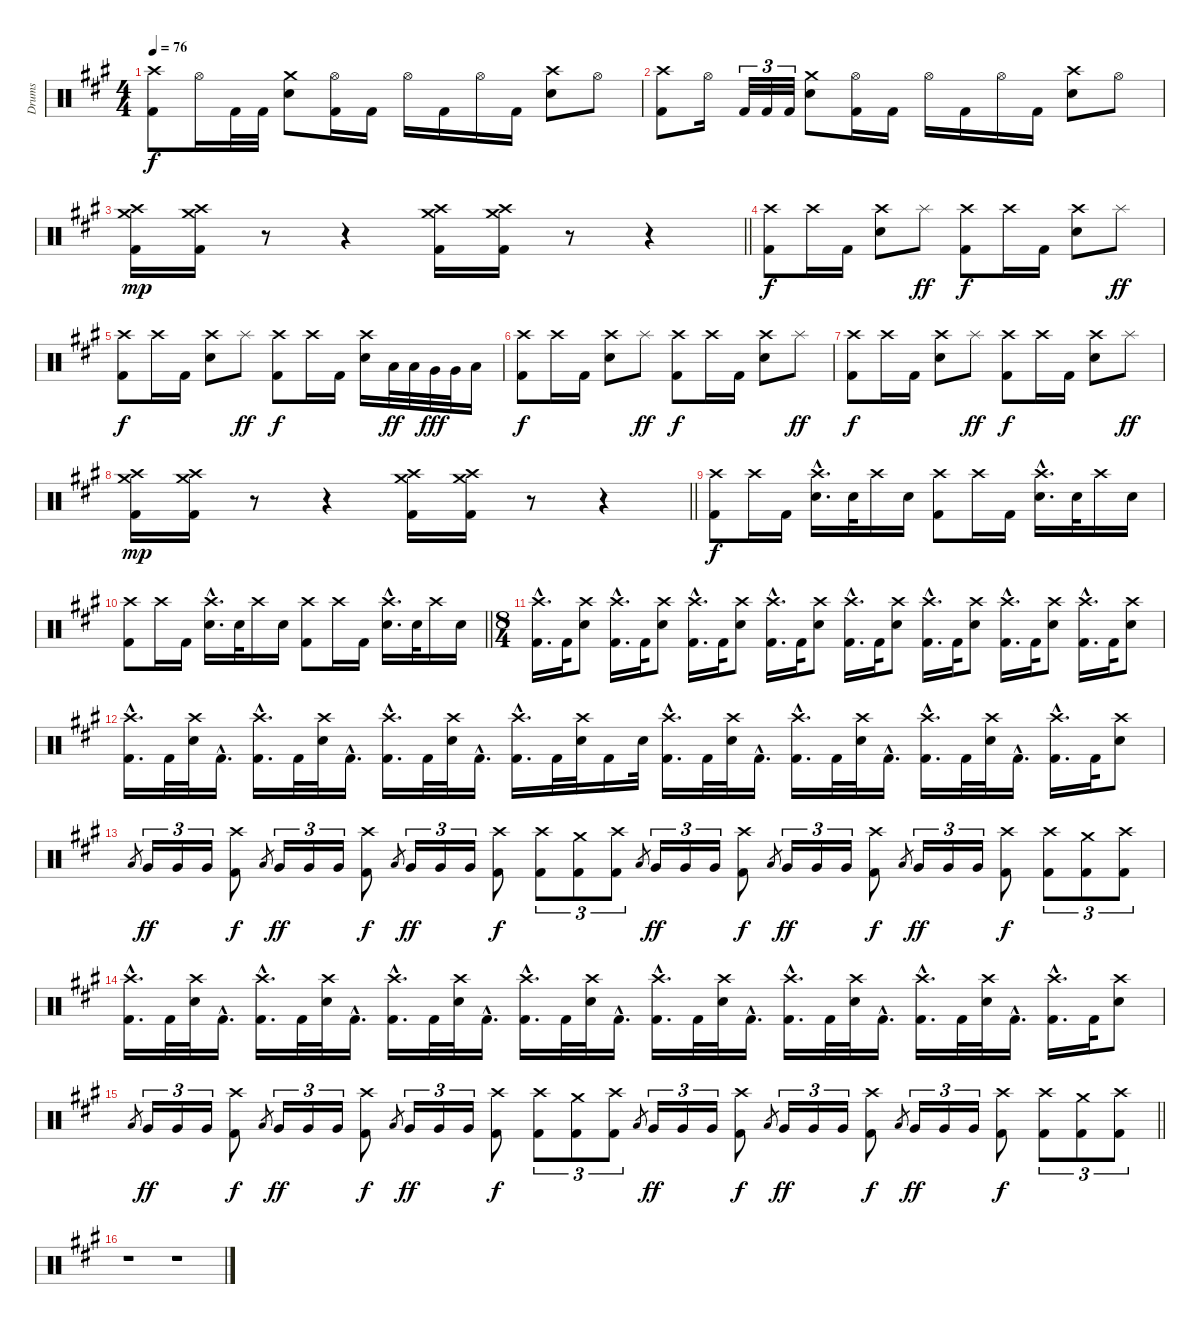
\track ("Drums" "Drums") {instrument percussion}
\staff {score}
\articulation defaults
\ts (4 4)
\tempo 76
\clef neutral
\ks f#minor
("Crash high (hit)" "Kick (hit) 2").8{dy f} "Hi-Hat (open)".16 "Kick (hit) 2".32 "Kick (hit) 2".32 ("Crash medium (hit)" "Snare (hit) 2").8 ("Hi-Hat (open)" "Kick (hit) 2").16 "Kick (hit) 2".16 "Hi-Hat (open)".16 "Kick (hit) 2".16 "Hi-Hat (open)".16 "Kick (hit) 2".16 ("Crash high (hit)" "Snare (hit) 2").8 "Hi-Hat (open)".8 |
("Crash high (hit)" "Kick (hit) 2").8 "Hi-Hat (open)".16 "Kick (hit) 2".32{tu (3 2)} "Kick (hit) 2".32{tu (3 2)} "Kick (hit) 2".32{tu (3 2)} ("Crash medium (hit)" "Snare (hit) 2").8 ("Hi-Hat (open)" "Kick (hit) 2").16 "Kick (hit) 2".16 "Hi-Hat (open)".16 "Kick (hit) 2".16 "Hi-Hat (open)".16 "Kick (hit) 2".16 ("Crash high (hit)" "Snare (hit) 2").8 "Hi-Hat (open)".8 |
\barLineRight lightlight
("Crash high (hit)" "Crash medium (hit)" "Kick (hit) 2").16{dy mp} ("Crash high (hit)" "Crash medium (hit)" "Kick (hit) 2").16 r.8 r.4 ("Crash high (hit)" "Crash medium (hit)" "Kick (hit) 2").16 ("Crash high (hit)" "Crash medium (hit)" "Kick (hit) 2").16 r.8 r.4 |
("Crash high (hit)" "Kick (hit) 2").8{dy f} "Crash high (hit)".16 "Kick (hit) 2".16 ("Crash high (hit)" "Snare (hit) 2").8 "Splash (hit)".8{dy ff} ("Crash high (hit)" "Kick (hit) 2").8{dy f} "Crash high (hit)".16 "Kick (hit) 2".16 ("Crash high (hit)" "Snare (hit) 2").8 "Splash (hit)".8{dy ff} |
("Crash high (hit)" "Kick (hit) 2").8{dy f} "Crash high (hit)".16 "Kick (hit) 2".16 ("Crash high (hit)" "Snare (hit) 2").8 "Splash (hit)".8{dy ff} ("Crash high (hit)" "Kick (hit) 2").8{dy f} "Crash high (hit)".16 "Kick (hit) 2".16 ("Crash high (hit)" "Snare (hit) 2").16 "Low Tom (hit)".32{dy ff} "Low Tom (hit)".32 "Very Low Tom (hit)".32{dy fff} "Very Low Tom (hit)".32 "Low Floor Tom (hit)".16 |
("Crash high (hit)" "Kick (hit) 2").8{dy f} "Crash high (hit)".16 "Kick (hit) 2".16 ("Crash high (hit)" "Snare (hit) 2").8 "Splash (hit)".8{dy ff} ("Crash high (hit)" "Kick (hit) 2").8{dy f} "Crash high (hit)".16 "Kick (hit) 2".16 ("Crash high (hit)" "Snare (hit) 2").8 "Splash (hit)".8{dy ff} |
("Crash high (hit)" "Kick (hit) 2").8{dy f} "Crash high (hit)".16 "Kick (hit) 2".16 ("Crash high (hit)" "Snare (hit) 2").8 "Splash (hit)".8{dy ff} ("Crash high (hit)" "Kick (hit) 2").8{dy f} "Crash high (hit)".16 "Kick (hit) 2".16 ("Crash high (hit)" "Snare (hit) 2").8 "Splash (hit)".8{dy ff} |
\barLineRight lightlight
("Crash high (hit)" "Crash medium (hit)" "Kick (hit) 2").16{dy mp} ("Crash high (hit)" "Crash medium (hit)" "Kick (hit) 2").16 r.8 r.4 ("Crash high (hit)" "Crash medium (hit)" "Kick (hit) 2").16 ("Crash high (hit)" "Crash medium (hit)" "Kick (hit) 2").16 r.8 r.4 |
("Crash high (hit)" "Kick (hit) 2").8{dy f} "Crash high (hit)".16 "Kick (hit) 2".16 ("Crash high (hit)"{hac} "Snare (hit) 2"{hac}).16{d} "Snare (hit) 2".32 "Crash high (hit)".16 "Snare (hit) 2".16 ("Crash high (hit)" "Kick (hit) 2").8 "Crash high (hit)".16 "Kick (hit) 2".16 ("Crash high (hit)"{hac} "Snare (hit) 2"{hac}).16{d} "Snare (hit) 2".32 "Crash high (hit)".16 "Snare (hit) 2".16 |
\barLineRight lightlight
("Crash high (hit)" "Kick (hit) 2").8 "Crash high (hit)".16 "Kick (hit) 2".16 ("Crash high (hit)"{hac} "Snare (hit) 2"{hac}).16{d} "Snare (hit) 2".32 "Crash high (hit)".16 "Snare (hit) 2".16 ("Crash high (hit)" "Kick (hit) 2").8 "Crash high (hit)".16 "Kick (hit) 2".16 ("Crash high (hit)"{hac} "Snare (hit) 2"{hac}).16{d} "Snare (hit) 2".32 "Crash high (hit)".16 "Snare (hit) 2".16 |
\ts (8 4)
("Crash high (hit)"{hac} "Kick (hit) 2"{hac}).16{d} "Kick (hit) 2".32 ("Crash high (hit)" "Snare (hit) 2").8 ("Crash high (hit)"{hac} "Kick (hit) 2"{hac}).16{d} "Kick (hit) 2".32 ("Crash high (hit)" "Snare (hit) 2").8 ("Crash high (hit)"{hac} "Kick (hit) 2"{hac}).16{d} "Kick (hit) 2".32 ("Crash high (hit)" "Snare (hit) 2").8 ("Crash high (hit)"{hac} "Kick (hit) 2"{hac}).16{d} "Kick (hit) 2".32 ("Crash high (hit)" "Snare (hit) 2").8 ("Crash high (hit)"{hac} "Kick (hit) 2"{hac}).16{d} "Kick (hit) 2".32 ("Crash high (hit)" "Snare (hit) 2").8 ("Crash high (hit)"{hac} "Kick (hit) 2"{hac}).16{d} "Kick (hit) 2".32 ("Crash high (hit)" "Snare (hit) 2").8 ("Crash high (hit)"{hac} "Kick (hit) 2"{hac}).16{d} "Kick (hit) 2".32 ("Crash high (hit)" "Snare (hit) 2").8 ("Crash high (hit)"{hac} "Kick (hit) 2"{hac}).16{d} "Kick (hit) 2".32 ("Crash high (hit)" "Snare (hit) 2").8 |
("Crash high (hit)"{hac} "Kick (hit) 2"{hac}).16{d} "Kick (hit) 2".32 ("Crash high (hit)" "Snare (hit) 2").32 "Kick (hit) 2"{hac}.16{d} ("Crash high (hit)"{hac} "Kick (hit) 2"{hac}).16{d} "Kick (hit) 2".32 ("Crash high (hit)" "Snare (hit) 2").32 "Kick (hit) 2"{hac}.16{d} ("Crash high (hit)"{hac} "Kick (hit) 2"{hac}).16{d} "Kick (hit) 2".32 ("Crash high (hit)" "Snare (hit) 2").32 "Kick (hit) 2"{hac}.16{d} ("Crash high (hit)"{hac} "Kick (hit) 2"{hac}).16{d} "Kick (hit) 2".32 ("Crash high (hit)" "Snare (hit) 2").32 "Kick (hit) 2".16 "Snare (hit) 2".32 ("Crash high (hit)"{hac} "Kick (hit) 2"{hac}).16{d} "Kick (hit) 2".32 ("Crash high (hit)" "Snare (hit) 2").32 "Kick (hit) 2"{hac}.16{d} ("Crash high (hit)"{hac} "Kick (hit) 2"{hac}).16{d} "Kick (hit) 2".32 ("Crash high (hit)" "Snare (hit) 2").32 "Kick (hit) 2"{hac}.16{d} ("Crash high (hit)"{hac} "Kick (hit) 2"{hac}).16{d} "Kick (hit) 2".32 ("Crash high (hit)" "Snare (hit) 2").32 "Kick (hit) 2"{hac}.16{d} ("Crash high (hit)"{hac} "Kick (hit) 2"{hac}).16{d} "Kick (hit) 2".32 ("Crash high (hit)" "Snare (hit) 2").8 |
"Low Tom (hit)".8{gr} "Very Low Tom (hit)".16{tu (3 2) dy ff} "Very Low Tom (hit)".16{tu (3 2)} "Very Low Tom (hit)".16{tu (3 2)} ("Crash high (hit)" "Kick (hit) 2").8{dy f} "Low Tom (hit)".8{gr} "Very Low Tom (hit)".16{tu (3 2) dy ff} "Very Low Tom (hit)".16{tu (3 2)} "Very Low Tom (hit)".16{tu (3 2)} ("Crash high (hit)" "Kick (hit) 2").8{dy f} "Low Tom (hit)".8{gr} "Very Low Tom (hit)".16{tu (3 2) dy ff} "Very Low Tom (hit)".16{tu (3 2)} "Very Low Tom (hit)".16{tu (3 2)} ("Crash high (hit)" "Kick (hit) 2").8{dy f} ("Crash high (hit)" "Kick (hit) 2").8{tu (3 2)} ("Crash medium (hit)" "Kick (hit) 2").8{tu (3 2)} ("Crash high (hit)" "Kick (hit) 2").8{tu (3 2)} "Low Tom (hit)".8{gr} "Very Low Tom (hit)".16{tu (3 2) dy ff} "Very Low Tom (hit)".16{tu (3 2)} "Very Low Tom (hit)".16{tu (3 2)} ("Crash high (hit)" "Kick (hit) 2").8{dy f} "Low Tom (hit)".8{gr} "Very Low Tom (hit)".16{tu (3 2) dy ff} "Very Low Tom (hit)".16{tu (3 2)} "Very Low Tom (hit)".16{tu (3 2)} ("Crash high (hit)" "Kick (hit) 2").8{dy f} "Low Tom (hit)".8{gr} "Very Low Tom (hit)".16{tu (3 2) dy ff} "Very Low Tom (hit)".16{tu (3 2)} "Very Low Tom (hit)".16{tu (3 2)} ("Crash high (hit)" "Kick (hit) 2").8{dy f} ("Crash high (hit)" "Kick (hit) 2").8{tu (3 2)} ("Crash medium (hit)" "Kick (hit) 2").8{tu (3 2)} ("Crash high (hit)" "Kick (hit) 2").8{tu (3 2)} |
("Crash high (hit)"{hac} "Kick (hit) 2"{hac}).16{d} "Kick (hit) 2".32 ("Crash high (hit)" "Snare (hit) 2").32 "Kick (hit) 2"{hac}.16{d} ("Crash high (hit)"{hac} "Kick (hit) 2"{hac}).16{d} "Kick (hit) 2".32 ("Crash high (hit)" "Snare (hit) 2").32 "Kick (hit) 2"{hac}.16{d} ("Crash high (hit)"{hac} "Kick (hit) 2"{hac}).16{d} "Kick (hit) 2".32 ("Crash high (hit)" "Snare (hit) 2").32 "Kick (hit) 2"{hac}.16{d} ("Crash high (hit)"{hac} "Kick (hit) 2"{hac}).16{d} "Kick (hit) 2".32 ("Crash high (hit)" "Snare (hit) 2").32 "Kick (hit) 2"{hac}.16{d} ("Crash high (hit)"{hac} "Kick (hit) 2"{hac}).16{d} "Kick (hit) 2".32 ("Crash high (hit)" "Snare (hit) 2").32 "Kick (hit) 2"{hac}.16{d} ("Crash high (hit)"{hac} "Kick (hit) 2"{hac}).16{d} "Kick (hit) 2".32 ("Crash high (hit)" "Snare (hit) 2").32 "Kick (hit) 2"{hac}.16{d} ("Crash high (hit)"{hac} "Kick (hit) 2"{hac}).16{d} "Kick (hit) 2".32 ("Crash high (hit)" "Snare (hit) 2").32 "Kick (hit) 2"{hac}.16{d} ("Crash high (hit)"{hac} "Kick (hit) 2"{hac}).16{d} "Kick (hit) 2".32 ("Crash high (hit)" "Snare (hit) 2").8 |
\barLineRight lightlight "Low Tom (hit)".8{gr} "Very Low Tom (hit)".16{tu (3 2) dy ff} "Very Low Tom (hit)".16{tu (3 2)} "Very Low Tom (hit)".16{tu (3 2)}
("Crash high (hit)" "Kick (hit) 2").8{dy f} "Low Tom (hit)".8{gr} "Very Low Tom (hit)".16{tu (3 2) dy ff} "Very Low Tom (hit)".16{tu (3 2)} "Very Low Tom (hit)".16{tu (3 2)} ("Crash high (hit)" "Kick (hit) 2").8{dy f} "Low Tom (hit)".8{gr} "Very Low Tom (hit)".16{tu (3 2) dy ff} "Very Low Tom (hit)".16{tu (3 2)} "Very Low Tom (hit)".16{tu (3 2)} ("Crash high (hit)" "Kick (hit) 2").8{dy f} ("Crash high (hit)" "Kick (hit) 2").8{tu (3 2)} ("Crash medium (hit)" "Kick (hit) 2").8{tu (3 2)} ("Crash high (hit)" "Kick (hit) 2").8{tu (3 2)} "Low Tom (hit)".8{gr} "Very Low Tom (hit)".16{tu (3 2) dy ff} "Very Low Tom (hit)".16{tu (3 2)} "Very Low Tom (hit)".16{tu (3 2)} ("Crash high (hit)" "Kick (hit) 2").8{dy f} "Low Tom (hit)".8{gr} "Very Low Tom (hit)".16{tu (3 2) dy ff} "Very Low Tom (hit)".16{tu (3 2)} "Very Low Tom (hit)".16{tu (3 2)} ("Crash high (hit)" "Kick (hit) 2").8{dy f} "Low Tom (hit)".8{gr} "Very Low Tom (hit)".16{tu (3 2) dy ff} "Very Low Tom (hit)".16{tu (3 2)} "Very Low Tom (hit)".16{tu (3 2)} ("Crash high (hit)" "Kick (hit) 2").8{dy f} ("Crash high (hit)" "Kick (hit) 2").8{tu (3 2)} ("Crash medium (hit)" "Kick (hit) 2").8{tu (3 2)} ("Crash high (hit)" "Kick (hit) 2").8{tu (3 2)} |
r.1 r.1
